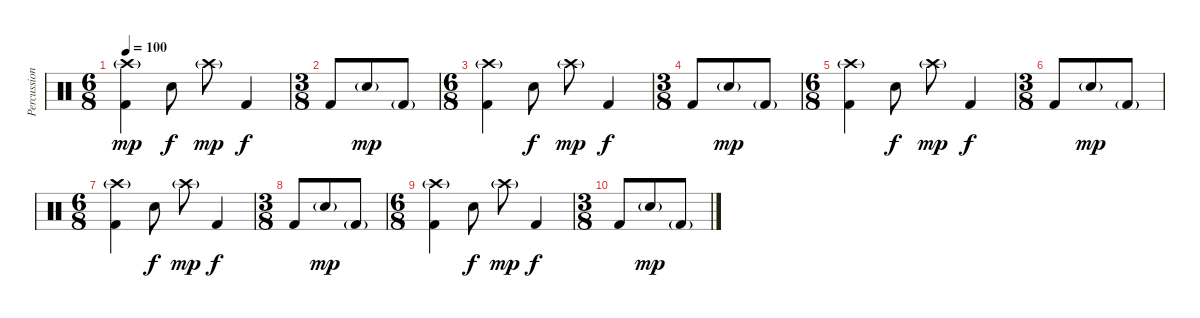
\track ("Percussion" "Percussion") {instrument percussion}
\staff {score}
\articulation defaults
\ts (6 8)
\tempo 100
\clef neutral
\ks c
("Crash high (hit)"{g} "Kick (hit) 2").4{dy mp} "Snare (hit) 2".8{dy f} "Crash high (hit)"{g}.8{dy mp} "Kick (hit) 2".4{dy f} |
\ts (3 8)
"Kick (hit) 2".8 "Snare (hit) 2"{g}.8{dy mp} "Kick (hit) 2"{g}.8 |
\ts (6 8)
("Crash high (hit)"{g} "Kick (hit) 2").4 "Snare (hit) 2".8{dy f} "Crash high (hit)"{g}.8{dy mp} "Kick (hit) 2".4{dy f} |
\ts (3 8)
"Kick (hit) 2".8 "Snare (hit) 2"{g}.8{dy mp} "Kick (hit) 2"{g}.8 |
\ts (6 8)
("Crash high (hit)"{g} "Kick (hit) 2").4 "Snare (hit) 2".8{dy f} "Crash high (hit)"{g}.8{dy mp} "Kick (hit) 2".4{dy f} |
\ts (3 8)
"Kick (hit) 2".8 "Snare (hit) 2"{g}.8{dy mp} "Kick (hit) 2"{g}.8 |
\ts (6 8)
("Crash high (hit)"{g} "Kick (hit) 2").4 "Snare (hit) 2".8{dy f} "Crash high (hit)"{g}.8{dy mp} "Kick (hit) 2".4{dy f} |
\ts (3 8)
"Kick (hit) 2".8 "Snare (hit) 2"{g}.8{dy mp} "Kick (hit) 2"{g}.8 |
\ts (6 8)
("Crash high (hit)"{g} "Kick (hit) 2").4 "Snare (hit) 2".8{dy f} "Crash high (hit)"{g}.8{dy mp} "Kick (hit) 2".4{dy f} |
\ts (3 8)
"Kick (hit) 2".8 "Snare (hit) 2"{g}.8{dy mp} "Kick (hit) 2"{g}.8
